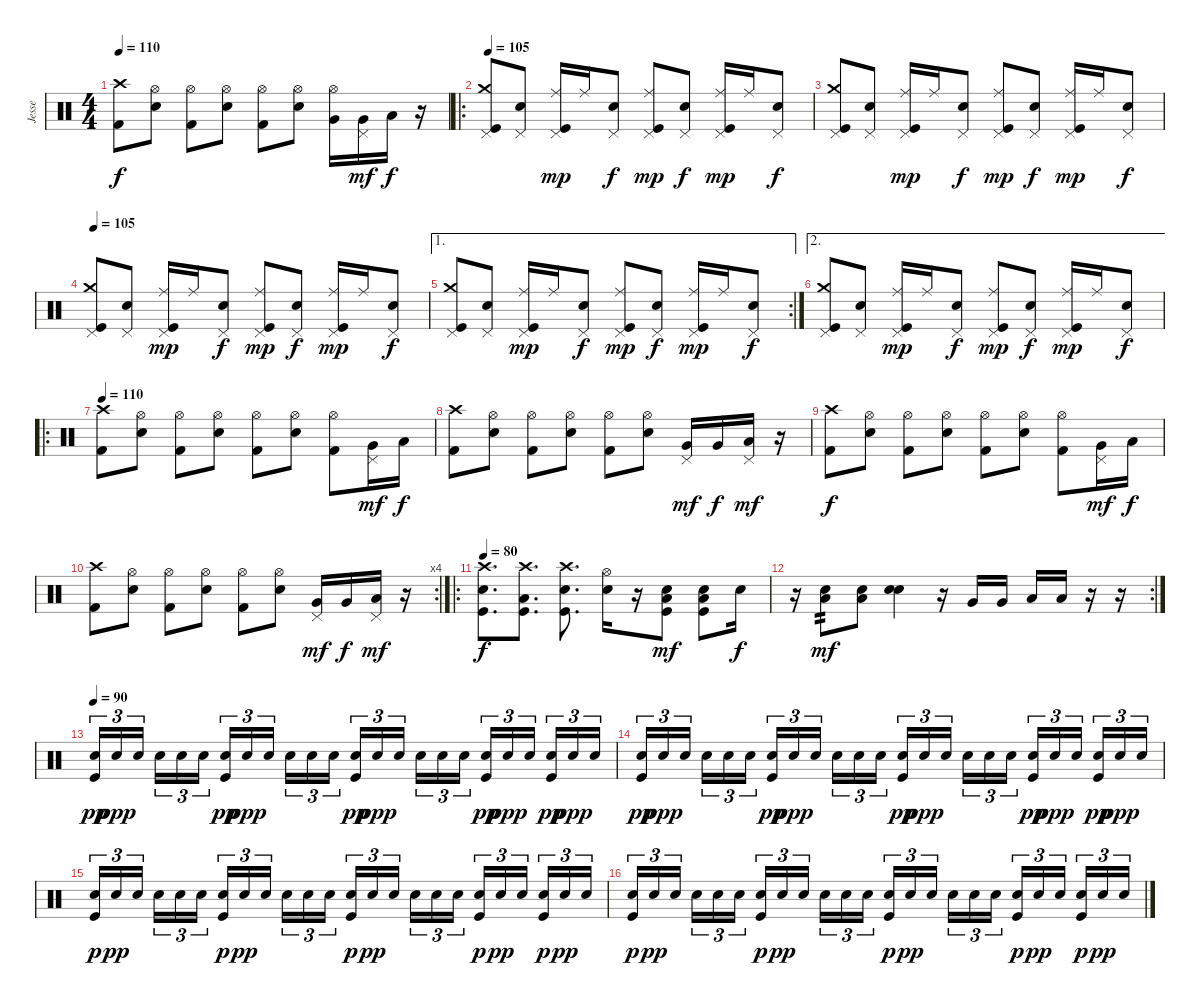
\track ("Jesse" "Jesse") {instrument percussion}
\staff {score}
\articulation defaults
\ts (4 4)
\tempo 110
\clef neutral
\ks c
("Crash high (hit)" "Kick (hit) 2").8{dy f} ("Hi-Hat (open)" "Electric Snare (hit)").8 ("Hi-Hat (open)" "Kick (hit) 2").8 ("Hi-Hat (open)" "Electric Snare (hit)").8 ("Hi-Hat (open)" "Kick (hit) 2").8 ("Hi-Hat (open)" "Electric Snare (hit)").8 ("Hi-Hat (open)" "Very Low Tom (hit)").16 ("Pedal Hi-Hat (hit)" "Very Low Tom (hit)").16{dy mf} "Low Tom (hit)".16{dy f} r.16 |
\ro
\tempo 105
("Pedal Hi-Hat (hit)" "Crash medium (hit)" "Kick (hit)").8 ("Pedal Hi-Hat (hit)" "Electric Snare (hit)").8 ("Pedal Hi-Hat (hit)" "Ride (middle)" "Kick (hit)").16{dy mp} "Ride (middle)".16 ("Pedal Hi-Hat (hit)" "Electric Snare (hit)").8{dy f} ("Pedal Hi-Hat (hit)" "Ride (middle)" "Kick (hit)").8{dy mp} ("Pedal Hi-Hat (hit)" "Electric Snare (hit)").8{dy f} ("Pedal Hi-Hat (hit)" "Ride (middle)" "Kick (hit)").16{dy mp} "Ride (middle)".16 ("Pedal Hi-Hat (hit)" "Electric Snare (hit)").8{dy f} |
("Pedal Hi-Hat (hit)" "Crash medium (hit)" "Kick (hit)").8 ("Pedal Hi-Hat (hit)" "Electric Snare (hit)").8 ("Pedal Hi-Hat (hit)" "Ride (middle)" "Kick (hit)").16{dy mp} "Ride (middle)".16 ("Pedal Hi-Hat (hit)" "Electric Snare (hit)").8{dy f} ("Pedal Hi-Hat (hit)" "Ride (middle)" "Kick (hit)").8{dy mp} ("Pedal Hi-Hat (hit)" "Electric Snare (hit)").8{dy f} ("Pedal Hi-Hat (hit)" "Ride (middle)" "Kick (hit)").16{dy mp} "Ride (middle)".16 ("Pedal Hi-Hat (hit)" "Electric Snare (hit)").8{dy f} |
\tempo 105
("Pedal Hi-Hat (hit)" "Crash medium (hit)" "Kick (hit)").8 ("Pedal Hi-Hat (hit)" "Electric Snare (hit)").8 ("Pedal Hi-Hat (hit)" "Ride (middle)" "Kick (hit)").16{dy mp} "Ride (middle)".16 ("Pedal Hi-Hat (hit)" "Electric Snare (hit)").8{dy f} ("Pedal Hi-Hat (hit)" "Ride (middle)" "Kick (hit)").8{dy mp} ("Pedal Hi-Hat (hit)" "Electric Snare (hit)").8{dy f} ("Pedal Hi-Hat (hit)" "Ride (middle)" "Kick (hit)").16{dy mp} "Ride (middle)".16 ("Pedal Hi-Hat (hit)" "Electric Snare (hit)").8{dy f} |
\ae 1
\rc 2
("Pedal Hi-Hat (hit)" "Crash medium (hit)" "Kick (hit)").8 ("Pedal Hi-Hat (hit)" "Electric Snare (hit)").8 ("Pedal Hi-Hat (hit)" "Ride (middle)" "Kick (hit)").16{dy mp} "Ride (middle)".16 ("Pedal Hi-Hat (hit)" "Electric Snare (hit)").8{dy f} ("Pedal Hi-Hat (hit)" "Ride (middle)" "Kick (hit)").8{dy mp} ("Pedal Hi-Hat (hit)" "Electric Snare (hit)").8{dy f} ("Pedal Hi-Hat (hit)" "Ride (middle)" "Kick (hit)").16{dy mp} "Ride (middle)".16 ("Pedal Hi-Hat (hit)" "Electric Snare (hit)").8{dy f} |
\ae 2
("Pedal Hi-Hat (hit)" "Crash medium (hit)" "Kick (hit)").8 ("Pedal Hi-Hat (hit)" "Electric Snare (hit)").8 ("Pedal Hi-Hat (hit)" "Ride (middle)" "Kick (hit)").16{dy mp} "Ride (middle)".16 ("Pedal Hi-Hat (hit)" "Electric Snare (hit)").8{dy f} ("Pedal Hi-Hat (hit)" "Ride (middle)" "Kick (hit)").8{dy mp} ("Pedal Hi-Hat (hit)" "Electric Snare (hit)").8{dy f} ("Pedal Hi-Hat (hit)" "Ride (middle)" "Kick (hit)").16{dy mp} "Ride (middle)".16 ("Pedal Hi-Hat (hit)" "Electric Snare (hit)").8{dy f} |
\ro
\tempo 110
("Crash high (hit)" "Kick (hit) 2").8 ("Hi-Hat (open)" "Electric Snare (hit)").8 ("Hi-Hat (open)" "Kick (hit) 2").8 ("Hi-Hat (open)" "Electric Snare (hit)").8 ("Hi-Hat (open)" "Kick (hit) 2").8 ("Hi-Hat (open)" "Electric Snare (hit)").8 ("Hi-Hat (open)" "Kick (hit) 2").8 ("Pedal Hi-Hat (hit)" "Very Low Tom (hit)").16{dy mf} "Low Tom (hit)".16{dy f} |
("Crash high (hit)" "Kick (hit) 2").8 ("Hi-Hat (open)" "Electric Snare (hit)").8 ("Hi-Hat (open)" "Kick (hit) 2").8 ("Hi-Hat (open)" "Electric Snare (hit)").8 ("Hi-Hat (open)" "Kick (hit) 2").8 ("Hi-Hat (open)" "Electric Snare (hit)").8 ("Pedal Hi-Hat (hit)" "Very Low Tom (hit)").16{dy mf} "Very Low Tom (hit)".16{dy f} ("Pedal Hi-Hat (hit)" "Low Tom (hit)").16{dy mf} r.16 |
("Crash high (hit)" "Kick (hit) 2").8{dy f} ("Hi-Hat (open)" "Electric Snare (hit)").8 ("Hi-Hat (open)" "Kick (hit) 2").8 ("Hi-Hat (open)" "Electric Snare (hit)").8 ("Hi-Hat (open)" "Kick (hit) 2").8 ("Hi-Hat (open)" "Electric Snare (hit)").8 ("Hi-Hat (open)" "Kick (hit) 2").8 ("Pedal Hi-Hat (hit)" "Very Low Tom (hit)").16{dy mf} "Low Tom (hit)".16{dy f} |
\rc 4
("Crash high (hit)" "Kick (hit) 2").8 ("Hi-Hat (open)" "Electric Snare (hit)").8 ("Hi-Hat (open)" "Kick (hit) 2").8 ("Hi-Hat (open)" "Electric Snare (hit)").8 ("Hi-Hat (open)" "Kick (hit) 2").8 ("Hi-Hat (open)" "Electric Snare (hit)").8 ("Pedal Hi-Hat (hit)" "Very Low Tom (hit)").16{dy mf} "Very Low Tom (hit)".16{dy f} ("Pedal Hi-Hat (hit)" "Low Tom (hit)").16{dy mf} r.16 |
\ro
\tempo 80
("Crash high (hit)" "Electric Snare (hit)" "Kick (hit)").8{d dy f} ("Crash high (hit)" "Low Floor Tom (hit)" "Kick (hit)").8{d} ("Crash high (hit)" "Electric Snare (hit)" "Kick (hit)").8{d} ("Hi-Hat (open)" "Electric Snare (hit)").16 r.16 ("Low Floor Tom (hit)" "Electric Snare (hit)" "Kick (hit)").8{dy mf} ("Low Floor Tom (hit)" "Electric Snare (hit)" "Kick (hit)").8 "Electric Snare (hit)".16{dy f} |
\rc 2
r.16 ("Low Floor Tom (hit)" "Electric Snare (hit)").8{tp 2 dy mf} ("Low Floor Tom (hit)" "Electric Snare (hit)").8 ("Electric Snare (hit)" "Electric Snare (hit)").4 r.16 "Very Low Tom (hit)".16 "Very Low Tom (hit)".16 "Low Tom (hit)".16 "Low Tom (hit)".16 r.16 r.16 |
\tempo 90
("Electric Snare (hit)" "Kick (hit)").16{tu (3 2) dy pp} "Electric Snare (hit)".16{tu (3 2) dy ppp} "Electric Snare (hit)".16{tu (3 2) beam splitsecondary} "Electric Snare (hit)".16{tu (3 2)} "Electric Snare (hit)".16{tu (3 2)} "Electric Snare (hit)".16{tu (3 2)} ("Electric Snare (hit)" "Kick (hit)").16{tu (3 2) dy pp} "Electric Snare (hit)".16{tu (3 2) dy ppp} "Electric Snare (hit)".16{tu (3 2) beam splitsecondary} "Electric Snare (hit)".16{tu (3 2)} "Electric Snare (hit)".16{tu (3 2)} "Electric Snare (hit)".16{tu (3 2)} ("Electric Snare (hit)" "Kick (hit)").16{tu (3 2) dy pp} "Electric Snare (hit)".16{tu (3 2) dy ppp} "Electric Snare (hit)".16{tu (3 2) beam splitsecondary} "Electric Snare (hit)".16{tu (3 2)} "Electric Snare (hit)".16{tu (3 2)} "Electric Snare (hit)".16{tu (3 2)} ("Electric Snare (hit)" "Kick (hit)").16{tu (3 2) dy pp} "Electric Snare (hit)".16{tu (3 2) dy ppp} "Electric Snare (hit)".16{tu (3 2) beam splitsecondary} ("Electric Snare (hit)" "Kick (hit)").16{tu (3 2) dy pp} "Electric Snare (hit)".16{tu (3 2) dy ppp} "Electric Snare (hit)".16{tu (3 2)} |
("Electric Snare (hit)" "Kick (hit)").16{tu (3 2) dy pp} "Electric Snare (hit)".16{tu (3 2) dy ppp} "Electric Snare (hit)".16{tu (3 2) beam splitsecondary} "Electric Snare (hit)".16{tu (3 2)} "Electric Snare (hit)".16{tu (3 2)} "Electric Snare (hit)".16{tu (3 2)} ("Electric Snare (hit)" "Kick (hit)").16{tu (3 2) dy pp} "Electric Snare (hit)".16{tu (3 2) dy ppp} "Electric Snare (hit)".16{tu (3 2) beam splitsecondary} "Electric Snare (hit)".16{tu (3 2)} "Electric Snare (hit)".16{tu (3 2)} "Electric Snare (hit)".16{tu (3 2)} ("Electric Snare (hit)" "Kick (hit)").16{tu (3 2) dy pp} "Electric Snare (hit)".16{tu (3 2) dy ppp} "Electric Snare (hit)".16{tu (3 2) beam splitsecondary} "Electric Snare (hit)".16{tu (3 2)} "Electric Snare (hit)".16{tu (3 2)} "Electric Snare (hit)".16{tu (3 2)} ("Electric Snare (hit)" "Kick (hit)").16{tu (3 2) dy pp} "Electric Snare (hit)".16{tu (3 2) dy ppp} "Electric Snare (hit)".16{tu (3 2) beam splitsecondary} ("Electric Snare (hit)" "Kick (hit)").16{tu (3 2) dy pp} "Electric Snare (hit)".16{tu (3 2) dy ppp} "Electric Snare (hit)".16{tu (3 2)} |
("Electric Snare (hit)" "Kick (hit)").16{tu (3 2) dy p} "Electric Snare (hit)".16{tu (3 2) dy pp} "Electric Snare (hit)".16{tu (3 2) beam splitsecondary} "Electric Snare (hit)".16{tu (3 2)} "Electric Snare (hit)".16{tu (3 2)} "Electric Snare (hit)".16{tu (3 2)} ("Electric Snare (hit)" "Kick (hit)").16{tu (3 2) dy p} "Electric Snare (hit)".16{tu (3 2) dy pp} "Electric Snare (hit)".16{tu (3 2) beam splitsecondary} "Electric Snare (hit)".16{tu (3 2)} "Electric Snare (hit)".16{tu (3 2)} "Electric Snare (hit)".16{tu (3 2)} ("Electric Snare (hit)" "Kick (hit)").16{tu (3 2) dy p} "Electric Snare (hit)".16{tu (3 2) dy pp} "Electric Snare (hit)".16{tu (3 2) beam splitsecondary} "Electric Snare (hit)".16{tu (3 2)} "Electric Snare (hit)".16{tu (3 2)} "Electric Snare (hit)".16{tu (3 2)} ("Electric Snare (hit)" "Kick (hit)").16{tu (3 2) dy p} "Electric Snare (hit)".16{tu (3 2) dy pp} "Electric Snare (hit)".16{tu (3 2) beam splitsecondary} ("Electric Snare (hit)" "Kick (hit)").16{tu (3 2) dy p} "Electric Snare (hit)".16{tu (3 2) dy pp} "Electric Snare (hit)".16{tu (3 2)} |
("Electric Snare (hit)" "Kick (hit)").16{tu (3 2) dy p} "Electric Snare (hit)".16{tu (3 2) dy pp} "Electric Snare (hit)".16{tu (3 2) beam splitsecondary} "Electric Snare (hit)".16{tu (3 2)} "Electric Snare (hit)".16{tu (3 2)} "Electric Snare (hit)".16{tu (3 2)} ("Electric Snare (hit)" "Kick (hit)").16{tu (3 2) dy p} "Electric Snare (hit)".16{tu (3 2) dy pp} "Electric Snare (hit)".16{tu (3 2) beam splitsecondary} "Electric Snare (hit)".16{tu (3 2)} "Electric Snare (hit)".16{tu (3 2)} "Electric Snare (hit)".16{tu (3 2)} ("Electric Snare (hit)" "Kick (hit)").16{tu (3 2) dy p} "Electric Snare (hit)".16{tu (3 2) dy pp} "Electric Snare (hit)".16{tu (3 2) beam splitsecondary} "Electric Snare (hit)".16{tu (3 2)} "Electric Snare (hit)".16{tu (3 2)} "Electric Snare (hit)".16{tu (3 2)} ("Electric Snare (hit)" "Kick (hit)").16{tu (3 2) dy p} "Electric Snare (hit)".16{tu (3 2) dy pp} "Electric Snare (hit)".16{tu (3 2) beam splitsecondary} ("Electric Snare (hit)" "Kick (hit)").16{tu (3 2) dy p} "Electric Snare (hit)".16{tu (3 2) dy pp} "Electric Snare (hit)".16{tu (3 2)}
